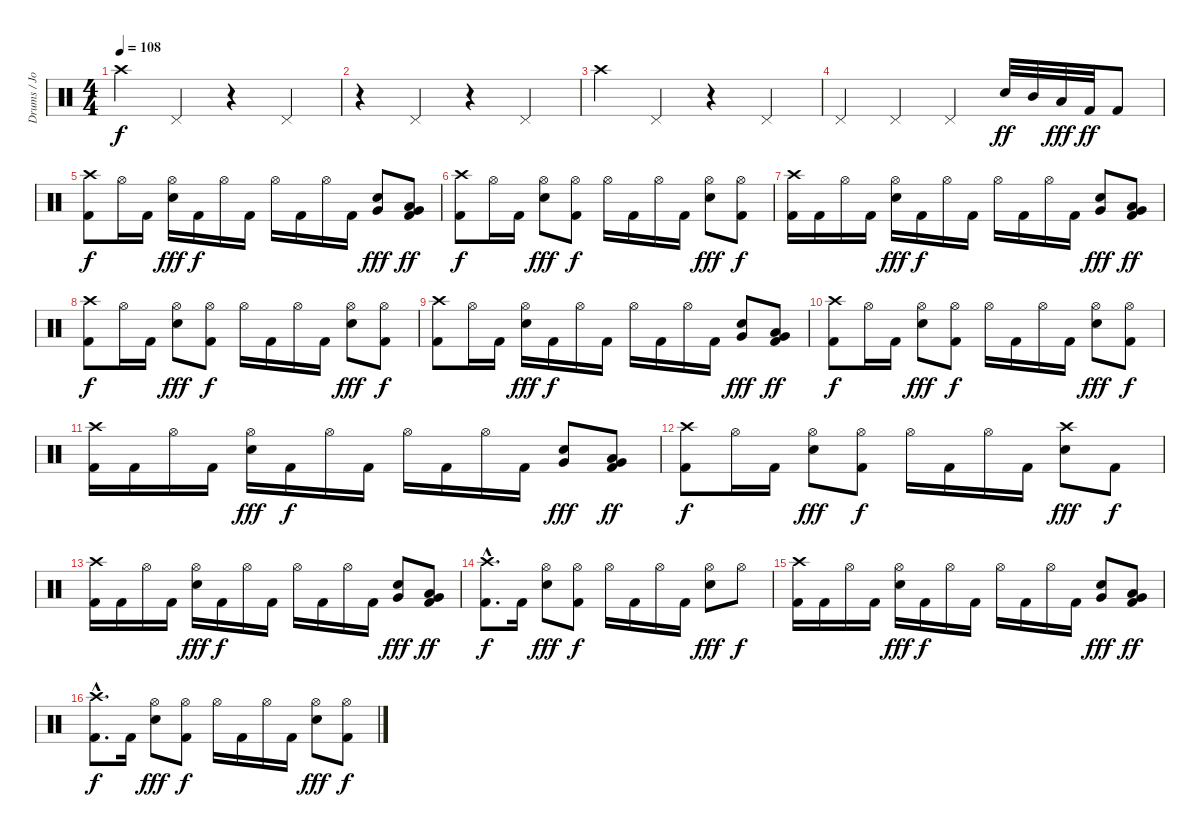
\track ("Drums / Jon Wysocki" "Drums / Jo") {instrument percussion}
\staff {score}
\articulation defaults
\ts (4 4)
\tempo 108
\clef neutral
\ks c "Crash high (hit)".4{dy f} "Pedal Hi-Hat (hit)".4
r.4 "Pedal Hi-Hat (hit)".4 |
r.4 "Pedal Hi-Hat (hit)".4 r.4 "Pedal Hi-Hat (hit)".4 |
"Crash high (hit)".4 "Pedal Hi-Hat (hit)".4 r.4 "Pedal Hi-Hat (hit)".4 |
"Pedal Hi-Hat (hit)".4 "Pedal Hi-Hat (hit)".4 "Pedal Hi-Hat (hit)".4 "Electric Snare (hit)".32{dy ff} "Mid Tom (hit)".32 "Low Tom (hit)".32{dy fff} "Kick (hit) 2".32{dy ff} "Kick (hit) 2".8 |
("Crash high (hit)" "Kick (hit) 2").8{dy f} "Hi-Hat (open)".16 "Kick (hit) 2".16 ("Hi-Hat (open)" "Electric Snare (hit)").16{dy fff} "Kick (hit) 2".16{dy f} "Hi-Hat (open)".16 "Kick (hit) 2".16 "Hi-Hat (open)".16 "Kick (hit) 2".16 "Hi-Hat (open)".16 "Kick (hit) 2".16 ("Electric Snare (hit)" "Very Low Tom (hit)").8{dy fff} ("Low Tom (hit)" "Very Low Tom (hit)" "Kick (hit) 2").8{dy ff} |
("Crash high (hit)" "Kick (hit) 2").8{dy f} "Hi-Hat (open)".16 "Kick (hit) 2".16 ("Hi-Hat (open)" "Electric Snare (hit)").8{dy fff} ("Hi-Hat (open)" "Kick (hit) 2").8{dy f} "Hi-Hat (open)".16 "Kick (hit) 2".16 "Hi-Hat (open)".16 "Kick (hit) 2".16 ("Hi-Hat (open)" "Electric Snare (hit)").8{dy fff} ("Hi-Hat (open)" "Kick (hit) 2").8{dy f} |
("Crash high (hit)" "Kick (hit) 2").16 "Kick (hit) 2".16 "Hi-Hat (open)".16 "Kick (hit) 2".16 ("Hi-Hat (open)" "Electric Snare (hit)").16{dy fff} "Kick (hit) 2".16{dy f} "Hi-Hat (open)".16 "Kick (hit) 2".16 "Hi-Hat (open)".16 "Kick (hit) 2".16 "Hi-Hat (open)".16 "Kick (hit) 2".16 ("Electric Snare (hit)" "Very Low Tom (hit)").8{dy fff} ("Low Tom (hit)" "Very Low Tom (hit)" "Kick (hit) 2").8{dy ff} |
("Crash high (hit)" "Kick (hit) 2").8{dy f} "Hi-Hat (open)".16 "Kick (hit) 2".16 ("Hi-Hat (open)" "Electric Snare (hit)").8{dy fff} ("Hi-Hat (open)" "Kick (hit) 2").8{dy f} "Hi-Hat (open)".16 "Kick (hit) 2".16 "Hi-Hat (open)".16 "Kick (hit) 2".16 ("Hi-Hat (open)" "Electric Snare (hit)").8{dy fff} ("Hi-Hat (open)" "Kick (hit) 2").8{dy f} |
("Crash high (hit)" "Kick (hit) 2").8 "Hi-Hat (open)".16 "Kick (hit) 2".16 ("Hi-Hat (open)" "Electric Snare (hit)").16{dy fff} "Kick (hit) 2".16{dy f} "Hi-Hat (open)".16 "Kick (hit) 2".16 "Hi-Hat (open)".16 "Kick (hit) 2".16 "Hi-Hat (open)".16 "Kick (hit) 2".16 ("Electric Snare (hit)" "Very Low Tom (hit)").8{dy fff} ("Low Tom (hit)" "Very Low Tom (hit)" "Kick (hit) 2").8{dy ff} |
("Crash high (hit)" "Kick (hit) 2").8{dy f} "Hi-Hat (open)".16 "Kick (hit) 2".16 ("Hi-Hat (open)" "Electric Snare (hit)").8{dy fff} ("Hi-Hat (open)" "Kick (hit) 2").8{dy f} "Hi-Hat (open)".16 "Kick (hit) 2".16 "Hi-Hat (open)".16 "Kick (hit) 2".16 ("Hi-Hat (open)" "Electric Snare (hit)").8{dy fff} ("Hi-Hat (open)" "Kick (hit) 2").8{dy f} |
("Crash high (hit)" "Kick (hit) 2").16 "Kick (hit) 2".16 "Hi-Hat (open)".16 "Kick (hit) 2".16 ("Hi-Hat (open)" "Electric Snare (hit)").16{dy fff} "Kick (hit) 2".16{dy f} "Hi-Hat (open)".16 "Kick (hit) 2".16 "Hi-Hat (open)".16 "Kick (hit) 2".16 "Hi-Hat (open)".16 "Kick (hit) 2".16 ("Electric Snare (hit)" "Very Low Tom (hit)").8{dy fff} ("Low Tom (hit)" "Very Low Tom (hit)" "Kick (hit) 2").8{dy ff} |
("Crash high (hit)" "Kick (hit) 2").8{dy f} "Hi-Hat (open)".16 "Kick (hit) 2".16 ("Hi-Hat (open)" "Electric Snare (hit)").8{dy fff} ("Hi-Hat (open)" "Kick (hit) 2").8{dy f} "Hi-Hat (open)".16 "Kick (hit) 2".16 "Hi-Hat (open)".16 "Kick (hit) 2".16 ("Crash high (hit)" "Electric Snare (hit)").8{dy fff} "Kick (hit) 2".8{dy f} |
("Crash high (hit)" "Kick (hit) 2").16 "Kick (hit) 2".16 "Hi-Hat (open)".16 "Kick (hit) 2".16 ("Hi-Hat (open)" "Electric Snare (hit)").16{dy fff} "Kick (hit) 2".16{dy f} "Hi-Hat (open)".16 "Kick (hit) 2".16 "Hi-Hat (open)".16 "Kick (hit) 2".16 "Hi-Hat (open)".16 "Kick (hit) 2".16 ("Electric Snare (hit)" "Very Low Tom (hit)").8{dy fff} ("Low Tom (hit)" "Very Low Tom (hit)" "Kick (hit) 2").8{dy ff} |
("Crash high (hit)"{hac} "Kick (hit) 2"{hac}).8{d dy f} "Kick (hit) 2".16 ("Hi-Hat (open)" "Electric Snare (hit)").8{dy fff} ("Hi-Hat (open)" "Kick (hit) 2").8{dy f} "Hi-Hat (open)".16 "Kick (hit) 2".16 "Hi-Hat (open)".16 "Kick (hit) 2".16 ("Hi-Hat (open)" "Electric Snare (hit)").8{dy fff} "Hi-Hat (open)".8{dy f} |
("Crash high (hit)" "Kick (hit) 2").16 "Kick (hit) 2".16 "Hi-Hat (open)".16 "Kick (hit) 2".16 ("Hi-Hat (open)" "Electric Snare (hit)").16{dy fff} "Kick (hit) 2".16{dy f} "Hi-Hat (open)".16 "Kick (hit) 2".16 "Hi-Hat (open)".16 "Kick (hit) 2".16 "Hi-Hat (open)".16 "Kick (hit) 2".16 ("Electric Snare (hit)" "Very Low Tom (hit)").8{dy fff} ("Low Tom (hit)" "Very Low Tom (hit)" "Kick (hit) 2").8{dy ff} |
("Crash high (hit)"{hac} "Kick (hit) 2"{hac}).8{d dy f} "Kick (hit) 2".16 ("Hi-Hat (open)" "Electric Snare (hit)").8{dy fff} ("Hi-Hat (open)" "Kick (hit) 2").8{dy f} "Hi-Hat (open)".16 "Kick (hit) 2".16 "Hi-Hat (open)".16 "Kick (hit) 2".16 ("Hi-Hat (open)" "Electric Snare (hit)").8{dy fff} ("Hi-Hat (open)" "Kick (hit) 2").8{dy f}
